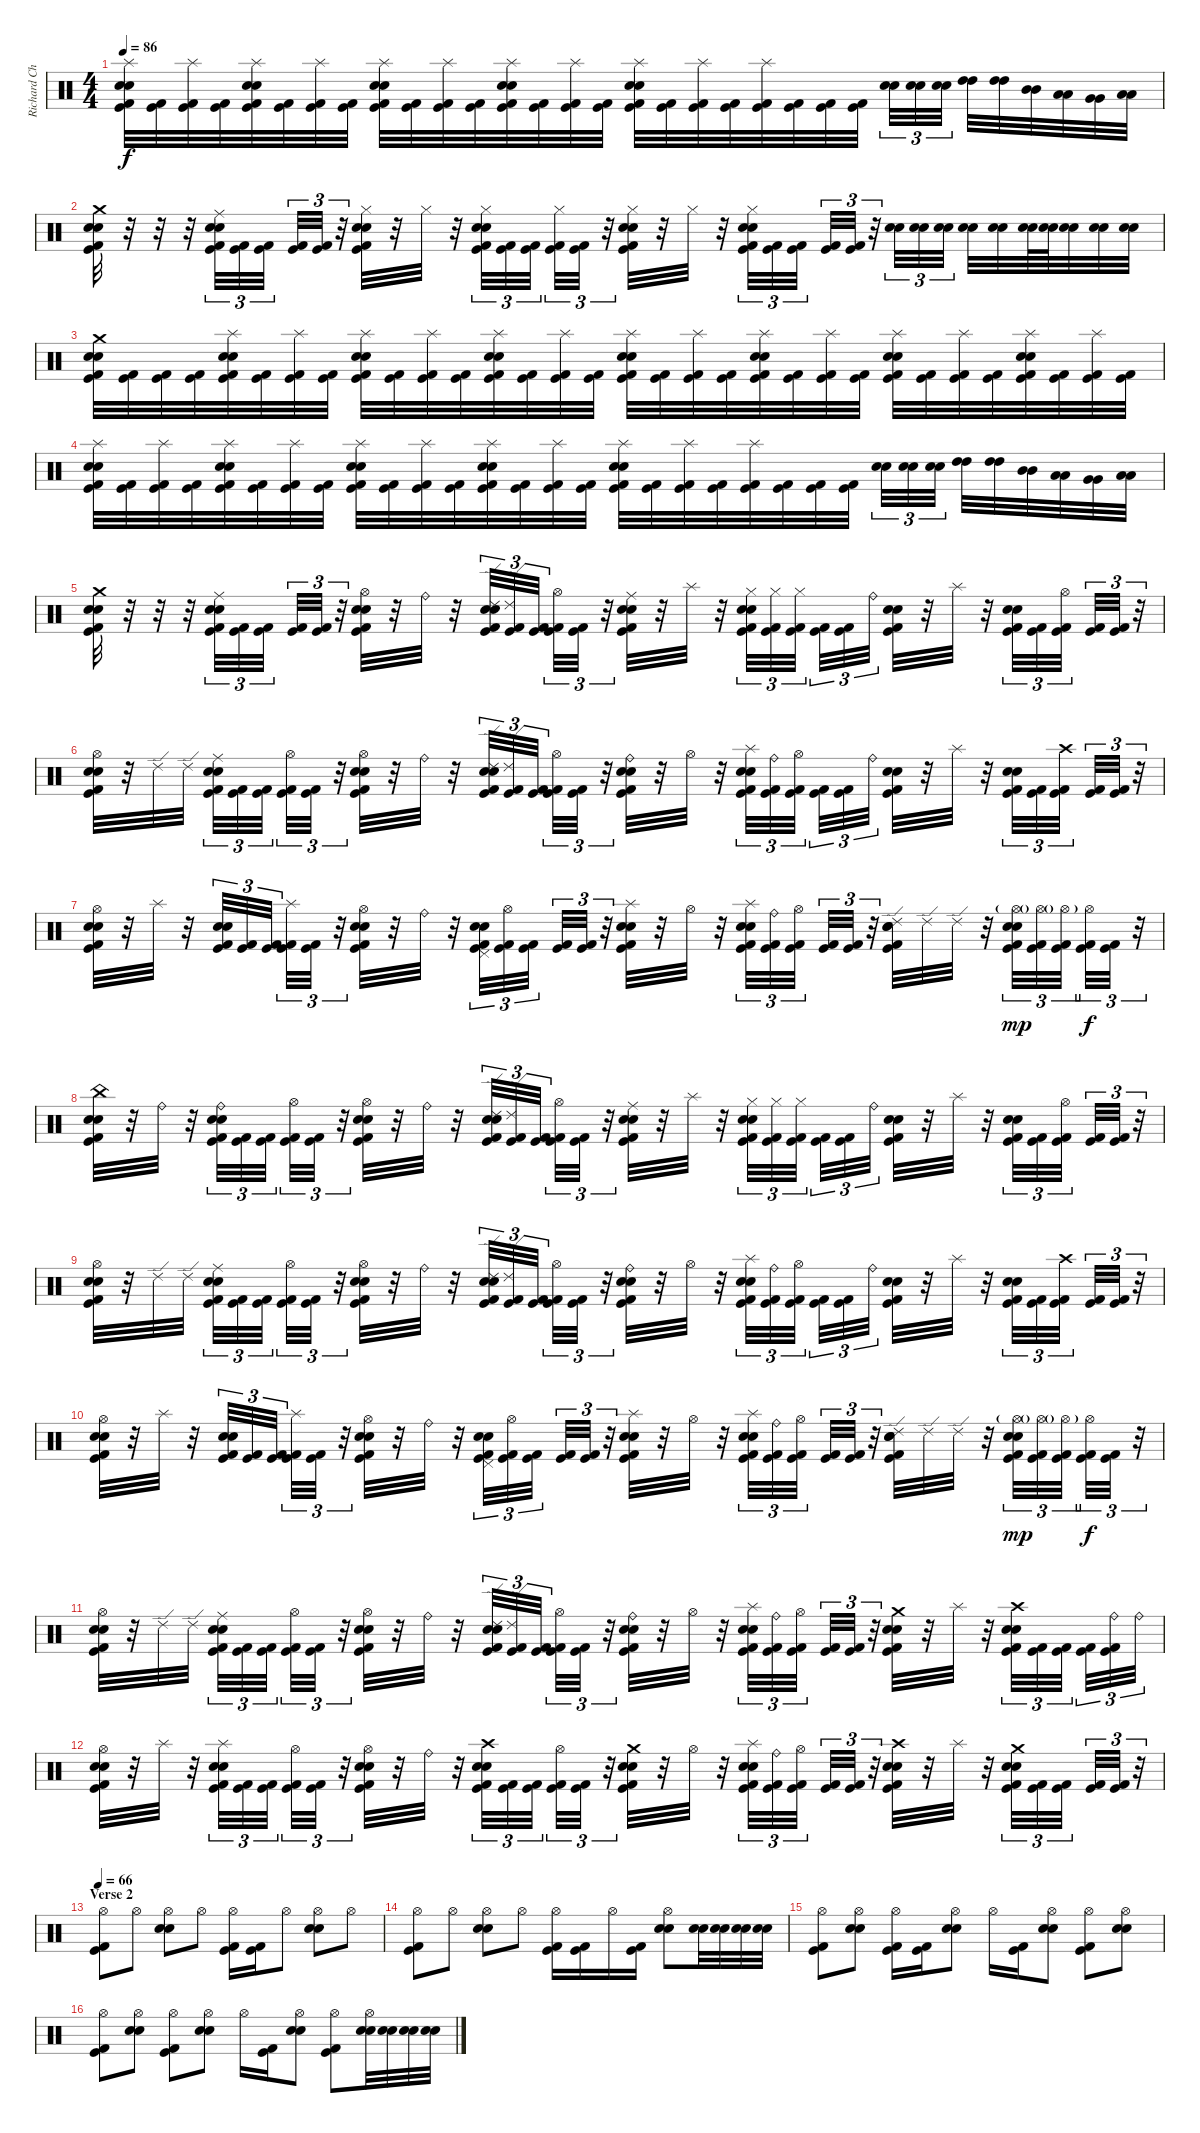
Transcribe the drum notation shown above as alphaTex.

\track ("Richard Christy" "Richard Ch") {instrument percussion}
\staff {score}
\articulation defaults
\ts (4 4)
\tempo 86
\clef neutral
\ks c
("Splash (hit)" "Electric Snare (hit)" "Snare (hit) 2" "Kick (hit)" "Kick (hit) 2").32{dy f} ("Kick (hit)" "Kick (hit) 2").32 ("Splash (hit)" "Kick (hit)" "Kick (hit) 2").32 ("Kick (hit)" "Kick (hit) 2").32 ("Splash (hit)" "Electric Snare (hit)" "Snare (hit) 2" "Kick (hit)" "Kick (hit) 2").32 ("Kick (hit)" "Kick (hit) 2").32 ("Splash (hit)" "Kick (hit)" "Kick (hit) 2").32 ("Kick (hit)" "Kick (hit) 2").32 ("Splash (hit)" "Electric Snare (hit)" "Snare (hit) 2" "Kick (hit)" "Kick (hit) 2").32 ("Kick (hit)" "Kick (hit) 2").32 ("Splash (hit)" "Kick (hit)" "Kick (hit) 2").32 ("Kick (hit)" "Kick (hit) 2").32 ("Splash (hit)" "Electric Snare (hit)" "Snare (hit) 2" "Kick (hit)" "Kick (hit) 2").32 ("Kick (hit)" "Kick (hit) 2").32 ("Splash (hit)" "Kick (hit)" "Kick (hit) 2").32 ("Kick (hit)" "Kick (hit) 2").32 ("Splash (hit)" "Electric Snare (hit)" "Snare (hit) 2" "Kick (hit)" "Kick (hit) 2").32 ("Kick (hit)" "Kick (hit) 2").32 ("Splash (hit)" "Kick (hit)" "Kick (hit) 2").32 ("Kick (hit)" "Kick (hit) 2").32 ("Splash (hit)" "Kick (hit)" "Kick (hit) 2").32 ("Kick (hit)" "Kick (hit) 2").32 ("Kick (hit)" "Kick (hit) 2").32 ("Kick (hit)" "Kick (hit) 2").32 ("Snare (hit) 2" "Electric Snare (hit)").32{tu (3 2)} ("Snare (hit) 2" "Electric Snare (hit)").32{tu (3 2)} ("Snare (hit) 2" "Electric Snare (hit)").32{tu (3 2)} ("High Tom (hit)" "High Tom (hit)").32 ("High Tom (hit)" "High Tom (hit)").32 ("Mid Tom (hit)" "Mid Tom (hit)").32 ("Low Tom (hit)" "Low Tom (hit)").32 ("Very Low Tom (hit)" "Very Low Tom (hit)").32 ("Low Floor Tom (hit)" "Low Floor Tom (hit)").32 |
("Crash medium (hit)" "Electric Snare (hit)" "Snare (hit) 2" "Kick (hit) 2" "Kick (hit)").32 r.32 r.32 r.32 ("Ride (middle)" "Electric Snare (hit)" "Snare (hit) 2" "Kick (hit) 2" "Kick (hit)").32{tu (3 2)} ("Kick (hit) 2" "Kick (hit)").32{tu (3 2)} ("Kick (hit) 2" "Kick (hit)").32{tu (3 2)} ("Kick (hit) 2" "Kick (hit)").32{tu (3 2)} ("Kick (hit) 2" "Kick (hit)").32{tu (3 2)} r.32{tu (3 2)} ("Hi-Hat (closed)" "Electric Snare (hit)" "Snare (hit) 2" "Kick (hit)" "Kick (hit) 2").32 r.32 "Hi-Hat (closed)".32 r.32 ("Hi-Hat (closed)" "Electric Snare (hit)" "Snare (hit) 2" "Kick (hit) 2" "Kick (hit)").32{tu (3 2)} ("Kick (hit) 2" "Kick (hit)").32{tu (3 2)} ("Kick (hit) 2" "Kick (hit)").32{tu (3 2)} ("Hi-Hat (closed)" "Kick (hit) 2" "Kick (hit)").32{tu (3 2)} ("Kick (hit) 2" "Kick (hit)").32{tu (3 2)} r.32{tu (3 2)} ("Hi-Hat (closed)" "Electric Snare (hit)" "Snare (hit) 2" "Kick (hit) 2" "Kick (hit)").32 r.32 "Hi-Hat (closed)".32 r.32 ("Hi-Hat (closed)" "Electric Snare (hit)" "Snare (hit) 2" "Kick (hit)" "Kick (hit) 2").32{tu (3 2)} ("Kick (hit)" "Kick (hit) 2").32{tu (3 2)} ("Kick (hit)" "Kick (hit) 2").32{tu (3 2)} ("Kick (hit)" "Kick (hit) 2").32{tu (3 2)} ("Kick (hit)" "Kick (hit) 2").32{tu (3 2)} r.32{tu (3 2)} ("Electric Snare (hit)" "Snare (hit) 2").32{tu (3 2)} ("Electric Snare (hit)" "Snare (hit) 2").32{tu (3 2)} ("Electric Snare (hit)" "Snare (hit) 2").32{tu (3 2)} ("Electric Snare (hit)" "Snare (hit) 2").32 ("Electric Snare (hit)" "Snare (hit) 2").32 ("Electric Snare (hit)" "Snare (hit) 2").64 ("Electric Snare (hit)" "Snare (hit) 2").64 ("Electric Snare (hit)" "Snare (hit) 2").32 ("Electric Snare (hit)" "Snare (hit) 2").32 ("Electric Snare (hit)" "Snare (hit) 2").32 |
("Crash medium (hit)" "Electric Snare (hit)" "Snare (hit) 2" "Kick (hit)" "Kick (hit) 2").32 ("Kick (hit)" "Kick (hit) 2").32 ("Kick (hit)" "Kick (hit) 2").32 ("Kick (hit)" "Kick (hit) 2").32 ("Splash (hit)" "Electric Snare (hit)" "Snare (hit) 2" "Kick (hit)" "Kick (hit) 2").32 ("Kick (hit)" "Kick (hit) 2").32 ("Splash (hit)" "Kick (hit)" "Kick (hit) 2").32 ("Kick (hit)" "Kick (hit) 2").32 ("Splash (hit)" "Electric Snare (hit)" "Snare (hit) 2" "Kick (hit)" "Kick (hit) 2").32 ("Kick (hit)" "Kick (hit) 2").32 ("Splash (hit)" "Kick (hit)" "Kick (hit) 2").32 ("Kick (hit)" "Kick (hit) 2").32 ("Splash (hit)" "Electric Snare (hit)" "Snare (hit) 2" "Kick (hit)" "Kick (hit) 2").32 ("Kick (hit)" "Kick (hit) 2").32 ("Splash (hit)" "Kick (hit)" "Kick (hit) 2").32 ("Kick (hit)" "Kick (hit) 2").32 ("Splash (hit)" "Electric Snare (hit)" "Snare (hit) 2" "Kick (hit)" "Kick (hit) 2").32 ("Kick (hit)" "Kick (hit) 2").32 ("Splash (hit)" "Kick (hit)" "Kick (hit) 2").32 ("Kick (hit)" "Kick (hit) 2").32 ("Splash (hit)" "Electric Snare (hit)" "Snare (hit) 2" "Kick (hit)" "Kick (hit) 2").32 ("Kick (hit)" "Kick (hit) 2").32 ("Splash (hit)" "Kick (hit)" "Kick (hit) 2").32 ("Kick (hit)" "Kick (hit) 2").32 ("Splash (hit)" "Electric Snare (hit)" "Snare (hit) 2" "Kick (hit)" "Kick (hit) 2").32 ("Kick (hit)" "Kick (hit) 2").32 ("Splash (hit)" "Kick (hit)" "Kick (hit) 2").32 ("Kick (hit)" "Kick (hit) 2").32 ("Splash (hit)" "Electric Snare (hit)" "Snare (hit) 2" "Kick (hit)" "Kick (hit) 2").32 ("Kick (hit)" "Kick (hit) 2").32 ("Splash (hit)" "Kick (hit)" "Kick (hit) 2").32 ("Kick (hit)" "Kick (hit) 2").32 |
("Splash (hit)" "Electric Snare (hit)" "Snare (hit) 2" "Kick (hit)" "Kick (hit) 2").32 ("Kick (hit)" "Kick (hit) 2").32 ("Splash (hit)" "Kick (hit)" "Kick (hit) 2").32 ("Kick (hit)" "Kick (hit) 2").32 ("Splash (hit)" "Electric Snare (hit)" "Snare (hit) 2" "Kick (hit)" "Kick (hit) 2").32 ("Kick (hit)" "Kick (hit) 2").32 ("Splash (hit)" "Kick (hit)" "Kick (hit) 2").32 ("Kick (hit)" "Kick (hit) 2").32 ("Splash (hit)" "Electric Snare (hit)" "Snare (hit) 2" "Kick (hit)" "Kick (hit) 2").32 ("Kick (hit)" "Kick (hit) 2").32 ("Splash (hit)" "Kick (hit)" "Kick (hit) 2").32 ("Kick (hit)" "Kick (hit) 2").32 ("Splash (hit)" "Electric Snare (hit)" "Snare (hit) 2" "Kick (hit)" "Kick (hit) 2").32 ("Kick (hit)" "Kick (hit) 2").32 ("Splash (hit)" "Kick (hit)" "Kick (hit) 2").32 ("Kick (hit)" "Kick (hit) 2").32 ("Splash (hit)" "Electric Snare (hit)" "Snare (hit) 2" "Kick (hit)" "Kick (hit) 2").32 ("Kick (hit)" "Kick (hit) 2").32 ("Splash (hit)" "Kick (hit)" "Kick (hit) 2").32 ("Kick (hit)" "Kick (hit) 2").32 ("Splash (hit)" "Kick (hit)" "Kick (hit) 2").32 ("Kick (hit)" "Kick (hit) 2").32 ("Kick (hit)" "Kick (hit) 2").32 ("Kick (hit)" "Kick (hit) 2").32 ("Snare (hit) 2" "Electric Snare (hit)").32{tu (3 2)} ("Snare (hit) 2" "Electric Snare (hit)").32{tu (3 2)} ("Snare (hit) 2" "Electric Snare (hit)").32{tu (3 2)} ("High Tom (hit)" "High Tom (hit)").32 ("High Tom (hit)" "High Tom (hit)").32 ("Mid Tom (hit)" "Mid Tom (hit)").32 ("Low Tom (hit)" "Low Tom (hit)").32 ("Very Low Tom (hit)" "Very Low Tom (hit)").32 ("Low Floor Tom (hit)" "Low Floor Tom (hit)").32 |
("Crash medium (hit)" "Electric Snare (hit)" "Snare (hit) 2" "Kick (hit) 2" "Kick (hit)").32 r.32 r.32 r.32 ("Ride (middle)" "Electric Snare (hit)" "Snare (hit) 2" "Kick (hit) 2" "Kick (hit)").32{tu (3 2)} ("Kick (hit) 2" "Kick (hit)").32{tu (3 2)} ("Kick (hit) 2" "Kick (hit)").32{tu (3 2)} ("Kick (hit) 2" "Kick (hit)").32{tu (3 2)} ("Kick (hit) 2" "Kick (hit)").32{tu (3 2)} r.32{tu (3 2)} ("Hi-Hat (open)" "Electric Snare (hit)" "Snare (hit) 2" "Kick (hit) 2" "Kick (hit)").32 r.32 "Ride (bell)".32 r.32 ("Ride (edge) 2" "Electric Snare (hit)" "Snare (hit) 2" "Kick (hit) 2" "Kick (hit)").32{tu (3 2)} ("Ride (edge) 2" "Kick (hit) 2" "Kick (hit)").32{tu (3 2)} ("Kick (hit) 2" "Kick (hit)").32{tu (3 2)} ("Hi-Hat (open)" "Kick (hit) 2" "Kick (hit)").32{tu (3 2)} ("Kick (hit) 2" "Kick (hit)").32{tu (3 2)} r.32{tu (3 2)} ("Ride (middle)" "Electric Snare (hit)" "Snare (hit) 2" "Kick (hit) 2" "Kick (hit)").32 r.32 "Splash (hit)".32 r.32 ("Hi-Hat (closed)" "Electric Snare (hit)" "Snare (hit) 2" "Kick (hit) 2" "Kick (hit)").32{tu (3 2)} ("Hi-Hat (closed)" "Kick (hit) 2" "Kick (hit)").32{tu (3 2)} ("Hi-Hat (closed)" "Kick (hit) 2" "Kick (hit)").32{tu (3 2)} ("Kick (hit) 2" "Kick (hit)").32{tu (3 2)} ("Kick (hit) 2" "Kick (hit)").32{tu (3 2)} "Ride (bell)".32{tu (3 2)} ("Electric Snare (hit)" "Snare (hit) 2" "Kick (hit) 2" "Kick (hit)").32 r.32 "Splash (hit)".32 r.32 ("Electric Snare (hit)" "Snare (hit) 2" "Kick (hit) 2" "Kick (hit)").32{tu (3 2)} ("Kick (hit) 2" "Kick (hit)").32{tu (3 2)} ("Hi-Hat (open)" "Kick (hit) 2" "Kick (hit)").32{tu (3 2)} ("Kick (hit) 2" "Kick (hit)").32{tu (3 2)} ("Kick (hit) 2" "Kick (hit)").32{tu (3 2)} r.32{tu (3 2)} |
("Hi-Hat (open)" "Electric Snare (hit)" "Snare (hit) 2" "Kick (hit) 2" "Kick (hit)").32 r.32 "Ride (edge) 2".32 "Ride (edge) 2".32 ("Ride (middle)" "Electric Snare (hit)" "Snare (hit) 2" "Kick (hit) 2" "Kick (hit)").32{tu (3 2)} ("Kick (hit) 2" "Kick (hit)").32{tu (3 2)} ("Kick (hit) 2" "Kick (hit)").32{tu (3 2)} ("Hi-Hat (open)" "Kick (hit) 2" "Kick (hit)").32{tu (3 2)} ("Kick (hit) 2" "Kick (hit)").32{tu (3 2)} r.32{tu (3 2)} ("Hi-Hat (open)" "Electric Snare (hit)" "Snare (hit) 2" "Kick (hit) 2" "Kick (hit)").32 r.32 "Ride (bell)".32 r.32 ("Ride (edge) 2" "Electric Snare (hit)" "Snare (hit) 2" "Kick (hit) 2" "Kick (hit)").32{tu (3 2)} ("Ride (edge) 2" "Kick (hit) 2" "Kick (hit)").32{tu (3 2)} ("Kick (hit) 2" "Kick (hit)").32{tu (3 2)} ("Hi-Hat (open)" "Kick (hit) 2" "Kick (hit)").32{tu (3 2)} ("Kick (hit) 2" "Kick (hit)").32{tu (3 2)} r.32{tu (3 2)} ("Ride (bell)" "Electric Snare (hit)" "Snare (hit) 2" "Kick (hit) 2" "Kick (hit)").32 r.32 "Hi-Hat (open)".32 r.32 ("Splash (hit)" "Electric Snare (hit)" "Snare (hit) 2" "Kick (hit) 2" "Kick (hit)").32{tu (3 2)} ("Ride (bell)" "Kick (hit) 2" "Kick (hit)").32{tu (3 2)} ("Hi-Hat (open)" "Kick (hit) 2" "Kick (hit)").32{tu (3 2)} ("Kick (hit) 2" "Kick (hit)").32{tu (3 2)} ("Kick (hit) 2" "Kick (hit)").32{tu (3 2)} "Ride (bell)".32{tu (3 2)} ("Electric Snare (hit)" "Snare (hit) 2" "Kick (hit) 2" "Kick (hit)").32 r.32 "Splash (hit)".32 r.32 ("Electric Snare (hit)" "Snare (hit) 2" "Kick (hit) 2" "Kick (hit)").32{tu (3 2)} ("Kick (hit) 2" "Kick (hit)").32{tu (3 2)} ("Crash high (hit)" "Kick (hit) 2" "Kick (hit)").32{tu (3 2)} ("Kick (hit) 2" "Kick (hit)").32{tu (3 2)} ("Kick (hit) 2" "Kick (hit)").32{tu (3 2)} r.32{tu (3 2)} |
("Hi-Hat (open)" "Electric Snare (hit)" "Snare (hit) 2" "Kick (hit) 2" "Kick (hit)").32 r.32 "Splash (hit)".32 r.32 ("Electric Snare (hit)" "Snare (hit) 2" "Kick (hit) 2" "Kick (hit)").32{tu (3 2)} ("Kick (hit) 2" "Kick (hit)").32{tu (3 2)} ("Kick (hit) 2" "Kick (hit)").32{tu (3 2)} ("Splash (hit)" "Kick (hit) 2" "Kick (hit)").32{tu (3 2)} ("Kick (hit) 2" "Kick (hit)").32{tu (3 2)} r.32{tu (3 2)} ("Hi-Hat (open)" "Electric Snare (hit)" "Snare (hit) 2" "Kick (hit) 2" "Kick (hit)").32 r.32 "Ride (bell)".32 r.32 ("Pedal Hi-Hat (hit)" "Electric Snare (hit)" "Snare (hit) 2" "Kick (hit) 2" "Kick (hit)").32{tu (3 2)} ("Hi-Hat (open)" "Kick (hit) 2" "Kick (hit)").32{tu (3 2)} ("Kick (hit) 2" "Kick (hit)").32{tu (3 2)} ("Kick (hit) 2" "Kick (hit)").32{tu (3 2)} ("Kick (hit) 2" "Kick (hit)").32{tu (3 2)} r.32{tu (3 2)} ("Splash (hit)" "Electric Snare (hit)" "Snare (hit) 2" "Kick (hit) 2" "Kick (hit)").32 r.32 "Hi-Hat (open)".32 r.32 ("Splash (hit)" "Electric Snare (hit)" "Snare (hit) 2" "Kick (hit) 2" "Kick (hit)").32{tu (3 2)} ("Ride (bell)" "Kick (hit) 2" "Kick (hit)").32{tu (3 2)} ("Hi-Hat (open)" "Kick (hit) 2" "Kick (hit)").32{tu (3 2)} ("Kick (hit) 2" "Kick (hit)").32{tu (3 2)} ("Kick (hit) 2" "Kick (hit)").32{tu (3 2)} r.32{tu (3 2)} ("Ride (edge) 2" "Electric Snare (hit)" "Snare (hit) 2" "Kick (hit) 2" "Kick (hit)").32 "Ride (edge) 2".32 "Ride (edge) 2".32 r.32 ("Hi-Hat (open)"{g} "Electric Snare (hit)" "Snare (hit) 2" "Kick (hit) 2" "Kick (hit)").32{tu (3 2) dy mp} ("Hi-Hat (open)"{g} "Kick (hit) 2" "Kick (hit)").32{tu (3 2)} ("Hi-Hat (open)"{g} "Kick (hit) 2" "Kick (hit)").32{tu (3 2)} ("Hi-Hat (open)" "Kick (hit) 2" "Kick (hit)").32{tu (3 2) dy f} ("Kick (hit) 2" "Kick (hit)").32{tu (3 2)} r.32{tu (3 2)} |
("China (hit)" "Electric Snare (hit)" "Snare (hit) 2" "Kick (hit) 2" "Kick (hit)").32 r.32 "Ride (bell)".32 r.32 ("Ride (bell)" "Electric Snare (hit)" "Snare (hit) 2" "Kick (hit) 2" "Kick (hit)").32{tu (3 2)} ("Kick (hit) 2" "Kick (hit)").32{tu (3 2)} ("Kick (hit) 2" "Kick (hit)").32{tu (3 2)} ("Hi-Hat (open)" "Kick (hit) 2" "Kick (hit)").32{tu (3 2)} ("Kick (hit) 2" "Kick (hit)").32{tu (3 2)} r.32{tu (3 2)} ("Hi-Hat (open)" "Electric Snare (hit)" "Snare (hit) 2" "Kick (hit) 2" "Kick (hit)").32 r.32 "Ride (bell)".32 r.32 ("Ride (edge) 2" "Electric Snare (hit)" "Snare (hit) 2" "Kick (hit) 2" "Kick (hit)").32{tu (3 2)} ("Ride (edge) 2" "Kick (hit) 2" "Kick (hit)").32{tu (3 2)} ("Kick (hit) 2" "Kick (hit)").32{tu (3 2)} ("Hi-Hat (open)" "Kick (hit) 2" "Kick (hit)").32{tu (3 2)} ("Kick (hit) 2" "Kick (hit)").32{tu (3 2)} r.32{tu (3 2)} ("Ride (middle)" "Electric Snare (hit)" "Snare (hit) 2" "Kick (hit) 2" "Kick (hit)").32 r.32 "Splash (hit)".32 r.32 ("Hi-Hat (closed)" "Electric Snare (hit)" "Snare (hit) 2" "Kick (hit) 2" "Kick (hit)").32{tu (3 2)} ("Hi-Hat (closed)" "Kick (hit) 2" "Kick (hit)").32{tu (3 2)} ("Hi-Hat (closed)" "Kick (hit) 2" "Kick (hit)").32{tu (3 2)} ("Kick (hit) 2" "Kick (hit)").32{tu (3 2)} ("Kick (hit) 2" "Kick (hit)").32{tu (3 2)} "Ride (bell)".32{tu (3 2)} ("Electric Snare (hit)" "Snare (hit) 2" "Kick (hit) 2" "Kick (hit)").32 r.32 "Splash (hit)".32 r.32 ("Electric Snare (hit)" "Snare (hit) 2" "Kick (hit) 2" "Kick (hit)").32{tu (3 2)} ("Kick (hit) 2" "Kick (hit)").32{tu (3 2)} ("Hi-Hat (open)" "Kick (hit) 2" "Kick (hit)").32{tu (3 2)} ("Kick (hit) 2" "Kick (hit)").32{tu (3 2)} ("Kick (hit) 2" "Kick (hit)").32{tu (3 2)} r.32{tu (3 2)} |
("Hi-Hat (open)" "Electric Snare (hit)" "Snare (hit) 2" "Kick (hit) 2" "Kick (hit)").32 r.32 "Ride (edge) 2".32 "Ride (edge) 2".32 ("Ride (middle)" "Electric Snare (hit)" "Snare (hit) 2" "Kick (hit) 2" "Kick (hit)").32{tu (3 2)} ("Kick (hit) 2" "Kick (hit)").32{tu (3 2)} ("Kick (hit) 2" "Kick (hit)").32{tu (3 2)} ("Hi-Hat (open)" "Kick (hit) 2" "Kick (hit)").32{tu (3 2)} ("Kick (hit) 2" "Kick (hit)").32{tu (3 2)} r.32{tu (3 2)} ("Hi-Hat (open)" "Electric Snare (hit)" "Snare (hit) 2" "Kick (hit) 2" "Kick (hit)").32 r.32 "Ride (bell)".32 r.32 ("Ride (edge) 2" "Electric Snare (hit)" "Snare (hit) 2" "Kick (hit) 2" "Kick (hit)").32{tu (3 2)} ("Ride (edge) 2" "Kick (hit) 2" "Kick (hit)").32{tu (3 2)} ("Kick (hit) 2" "Kick (hit)").32{tu (3 2)} ("Hi-Hat (open)" "Kick (hit) 2" "Kick (hit)").32{tu (3 2)} ("Kick (hit) 2" "Kick (hit)").32{tu (3 2)} r.32{tu (3 2)} ("Ride (bell)" "Electric Snare (hit)" "Snare (hit) 2" "Kick (hit) 2" "Kick (hit)").32 r.32 "Hi-Hat (open)".32 r.32 ("Splash (hit)" "Electric Snare (hit)" "Snare (hit) 2" "Kick (hit) 2" "Kick (hit)").32{tu (3 2)} ("Ride (bell)" "Kick (hit) 2" "Kick (hit)").32{tu (3 2)} ("Hi-Hat (open)" "Kick (hit) 2" "Kick (hit)").32{tu (3 2)} ("Kick (hit) 2" "Kick (hit)").32{tu (3 2)} ("Kick (hit) 2" "Kick (hit)").32{tu (3 2)} "Ride (bell)".32{tu (3 2)} ("Electric Snare (hit)" "Snare (hit) 2" "Kick (hit) 2" "Kick (hit)").32 r.32 "Splash (hit)".32 r.32 ("Electric Snare (hit)" "Snare (hit) 2" "Kick (hit) 2" "Kick (hit)").32{tu (3 2)} ("Kick (hit) 2" "Kick (hit)").32{tu (3 2)} ("Crash high (hit)" "Kick (hit) 2" "Kick (hit)").32{tu (3 2)} ("Kick (hit) 2" "Kick (hit)").32{tu (3 2)} ("Kick (hit) 2" "Kick (hit)").32{tu (3 2)} r.32{tu (3 2)} |
("Hi-Hat (open)" "Electric Snare (hit)" "Snare (hit) 2" "Kick (hit) 2" "Kick (hit)").32 r.32 "Splash (hit)".32 r.32 ("Electric Snare (hit)" "Snare (hit) 2" "Kick (hit) 2" "Kick (hit)").32{tu (3 2)} ("Kick (hit) 2" "Kick (hit)").32{tu (3 2)} ("Kick (hit) 2" "Kick (hit)").32{tu (3 2)} ("Splash (hit)" "Kick (hit) 2" "Kick (hit)").32{tu (3 2)} ("Kick (hit) 2" "Kick (hit)").32{tu (3 2)} r.32{tu (3 2)} ("Hi-Hat (open)" "Electric Snare (hit)" "Snare (hit) 2" "Kick (hit) 2" "Kick (hit)").32 r.32 "Ride (bell)".32 r.32 ("Pedal Hi-Hat (hit)" "Electric Snare (hit)" "Snare (hit) 2" "Kick (hit) 2" "Kick (hit)").32{tu (3 2)} ("Hi-Hat (open)" "Kick (hit) 2" "Kick (hit)").32{tu (3 2)} ("Kick (hit) 2" "Kick (hit)").32{tu (3 2)} ("Kick (hit) 2" "Kick (hit)").32{tu (3 2)} ("Kick (hit) 2" "Kick (hit)").32{tu (3 2)} r.32{tu (3 2)} ("Splash (hit)" "Electric Snare (hit)" "Snare (hit) 2" "Kick (hit) 2" "Kick (hit)").32 r.32 "Hi-Hat (open)".32 r.32 ("Splash (hit)" "Electric Snare (hit)" "Snare (hit) 2" "Kick (hit) 2" "Kick (hit)").32{tu (3 2)} ("Ride (bell)" "Kick (hit) 2" "Kick (hit)").32{tu (3 2)} ("Hi-Hat (open)" "Kick (hit) 2" "Kick (hit)").32{tu (3 2)} ("Kick (hit) 2" "Kick (hit)").32{tu (3 2)} ("Kick (hit) 2" "Kick (hit)").32{tu (3 2)} r.32{tu (3 2)} ("Ride (edge) 2" "Electric Snare (hit)" "Snare (hit) 2" "Kick (hit) 2" "Kick (hit)").32 "Ride (edge) 2".32 "Ride (edge) 2".32 r.32 ("Hi-Hat (open)"{g} "Electric Snare (hit)" "Snare (hit) 2" "Kick (hit) 2" "Kick (hit)").32{tu (3 2) dy mp} ("Hi-Hat (open)"{g} "Kick (hit) 2" "Kick (hit)").32{tu (3 2)} ("Hi-Hat (open)"{g} "Kick (hit) 2" "Kick (hit)").32{tu (3 2)} ("Hi-Hat (open)" "Kick (hit) 2" "Kick (hit)").32{tu (3 2) dy f} ("Kick (hit) 2" "Kick (hit)").32{tu (3 2)} r.32{tu (3 2)} |
("Hi-Hat (open)" "Electric Snare (hit)" "Snare (hit) 2" "Kick (hit) 2" "Kick (hit)").32 r.32 "Ride (edge) 2".32 "Ride (edge) 2".32 ("Ride (middle)" "Electric Snare (hit)" "Snare (hit) 2" "Kick (hit) 2" "Kick (hit)").32{tu (3 2)} ("Kick (hit) 2" "Kick (hit)").32{tu (3 2)} ("Kick (hit) 2" "Kick (hit)").32{tu (3 2)} ("Hi-Hat (open)" "Kick (hit) 2" "Kick (hit)").32{tu (3 2)} ("Kick (hit) 2" "Kick (hit)").32{tu (3 2)} r.32{tu (3 2)} ("Hi-Hat (open)" "Electric Snare (hit)" "Snare (hit) 2" "Kick (hit) 2" "Kick (hit)").32 r.32 "Ride (bell)".32 r.32 ("Ride (edge) 2" "Electric Snare (hit)" "Snare (hit) 2" "Kick (hit) 2" "Kick (hit)").32{tu (3 2)} ("Ride (edge) 2" "Kick (hit) 2" "Kick (hit)").32{tu (3 2)} ("Kick (hit) 2" "Kick (hit)").32{tu (3 2)} ("Hi-Hat (open)" "Kick (hit) 2" "Kick (hit)").32{tu (3 2)} ("Kick (hit) 2" "Kick (hit)").32{tu (3 2)} r.32{tu (3 2)} ("Ride (bell)" "Electric Snare (hit)" "Snare (hit) 2" "Kick (hit) 2" "Kick (hit)").32 r.32 "Hi-Hat (open)".32 r.32 ("Splash (hit)" "Electric Snare (hit)" "Snare (hit) 2" "Kick (hit) 2" "Kick (hit)").32{tu (3 2)} ("Ride (bell)" "Kick (hit) 2" "Kick (hit)").32{tu (3 2)} ("Hi-Hat (open)" "Kick (hit) 2" "Kick (hit)").32{tu (3 2)} ("Kick (hit) 2" "Kick (hit)").32{tu (3 2)} ("Kick (hit) 2" "Kick (hit)").32{tu (3 2)} r.32{tu (3 2)} ("Crash medium (hit)" "Electric Snare (hit)" "Snare (hit) 2" "Kick (hit) 2" "Kick (hit)").32 r.32 "Splash (hit)".32 r.32 ("Crash high (hit)" "Electric Snare (hit)" "Snare (hit) 2" "Kick (hit) 2" "Kick (hit)").32{tu (3 2)} ("Kick (hit) 2" "Kick (hit)").32{tu (3 2)} ("Kick (hit) 2" "Kick (hit)").32{tu (3 2)} ("Kick (hit) 2" "Kick (hit)").32{tu (3 2)} ("Ride (bell)" "Kick (hit) 2" "Kick (hit)").32{tu (3 2)} "Ride (bell)".32{tu (3 2)} |
("Hi-Hat (open)" "Electric Snare (hit)" "Snare (hit) 2" "Kick (hit) 2" "Kick (hit)").32 r.32 "Splash (hit)".32 r.32 ("Splash (hit)" "Electric Snare (hit)" "Snare (hit) 2" "Kick (hit) 2" "Kick (hit)").32{tu (3 2)} ("Kick (hit) 2" "Kick (hit)").32{tu (3 2)} ("Kick (hit) 2" "Kick (hit)").32{tu (3 2)} ("Hi-Hat (open)" "Kick (hit) 2" "Kick (hit)").32{tu (3 2)} ("Kick (hit) 2" "Kick (hit)").32{tu (3 2)} r.32{tu (3 2)} ("Hi-Hat (open)" "Electric Snare (hit)" "Snare (hit) 2" "Kick (hit) 2" "Kick (hit)").32 r.32 "Ride (bell)".32 r.32 ("Crash high (hit)" "Electric Snare (hit)" "Snare (hit) 2" "Kick (hit) 2" "Kick (hit)").32{tu (3 2)} ("Kick (hit) 2" "Kick (hit)").32{tu (3 2)} ("Kick (hit) 2" "Kick (hit)").32{tu (3 2)} ("Hi-Hat (open)" "Kick (hit) 2" "Kick (hit)").32{tu (3 2)} ("Kick (hit) 2" "Kick (hit)").32{tu (3 2)} r.32{tu (3 2)} ("Crash medium (hit)" "Electric Snare (hit)" "Snare (hit) 2" "Kick (hit) 2" "Kick (hit)").32 r.32 "Hi-Hat (open)".32 r.32 ("Splash (hit)" "Electric Snare (hit)" "Snare (hit) 2" "Kick (hit) 2" "Kick (hit)").32{tu (3 2)} ("Ride (bell)" "Kick (hit) 2" "Kick (hit)").32{tu (3 2)} ("Hi-Hat (open)" "Kick (hit) 2" "Kick (hit)").32{tu (3 2)} ("Kick (hit) 2" "Kick (hit)").32{tu (3 2)} ("Kick (hit) 2" "Kick (hit)").32{tu (3 2)} r.32{tu (3 2)} ("Crash high (hit)" "Electric Snare (hit)" "Snare (hit) 2" "Kick (hit) 2" "Kick (hit)").32 r.32 "Splash (hit)".32 r.32 ("Crash medium (hit)" "Electric Snare (hit)" "Snare (hit) 2" "Kick (hit) 2" "Kick (hit)").32{tu (3 2)} ("Kick (hit) 2" "Kick (hit)").32{tu (3 2)} ("Kick (hit) 2" "Kick (hit)").32{tu (3 2)} ("Kick (hit) 2" "Kick (hit)").32{tu (3 2)} ("Kick (hit) 2" "Kick (hit)").32{tu (3 2)} r.32{tu (3 2)} |
\section ("" "Verse 2")
\tempo 66
("Hi-Hat (open)" "Kick (hit) 2" "Kick (hit)").8 "Hi-Hat (open)".8 ("Hi-Hat (open)" "Snare (hit) 2" "Electric Snare (hit)").8 "Hi-Hat (open)".8 ("Hi-Hat (open)" "Kick (hit) 2" "Kick (hit)").16 ("Kick (hit) 2" "Kick (hit)").16 "Hi-Hat (open)".8 ("Hi-Hat (open)" "Snare (hit) 2" "Electric Snare (hit)").8 "Hi-Hat (open)".8 |
("Hi-Hat (open)" "Kick (hit) 2" "Kick (hit)").8 "Hi-Hat (open)".8 ("Hi-Hat (open)" "Snare (hit) 2" "Electric Snare (hit)").8 "Hi-Hat (open)".8 ("Hi-Hat (open)" "Kick (hit) 2" "Kick (hit)").16 ("Kick (hit) 2" "Kick (hit)").16 "Hi-Hat (open)".16 ("Kick (hit)" "Kick (hit) 2").16 ("Hi-Hat (open)" "Snare (hit) 2" "Electric Snare (hit)").8 ("Snare (hit) 2" "Electric Snare (hit)").32 ("Snare (hit) 2" "Electric Snare (hit)").32 ("Snare (hit) 2" "Electric Snare (hit)").32 ("Snare (hit) 2" "Electric Snare (hit)").32 |
("Hi-Hat (open)" "Kick (hit) 2" "Kick (hit)").8 ("Hi-Hat (open)" "Snare (hit) 2" "Electric Snare (hit)").8 ("Hi-Hat (open)" "Kick (hit) 2" "Kick (hit)").16 ("Kick (hit) 2" "Kick (hit)").16 ("Hi-Hat (open)" "Snare (hit) 2" "Electric Snare (hit)").8 "Hi-Hat (open)".16 ("Kick (hit)" "Kick (hit) 2").16 ("Hi-Hat (open)" "Snare (hit) 2" "Electric Snare (hit)").8 ("Hi-Hat (open)" "Kick (hit)" "Kick (hit) 2").8 ("Hi-Hat (open)" "Snare (hit) 2" "Electric Snare (hit)").8 |
("Hi-Hat (open)" "Kick (hit) 2" "Kick (hit)").8 ("Hi-Hat (open)" "Snare (hit) 2" "Electric Snare (hit)").8 ("Hi-Hat (open)" "Kick (hit)" "Kick (hit) 2").8 ("Hi-Hat (open)" "Snare (hit) 2" "Electric Snare (hit)").8 "Hi-Hat (open)".16 ("Kick (hit) 2" "Kick (hit)").16 ("Hi-Hat (open)" "Snare (hit) 2" "Electric Snare (hit)").8 ("Hi-Hat (open)" "Kick (hit)" "Kick (hit) 2").8 ("Hi-Hat (open)" "Snare (hit) 2" "Electric Snare (hit)").32 ("Snare (hit) 2" "Electric Snare (hit)").32 ("Snare (hit) 2" "Electric Snare (hit)").32 ("Snare (hit) 2" "Electric Snare (hit)").32
